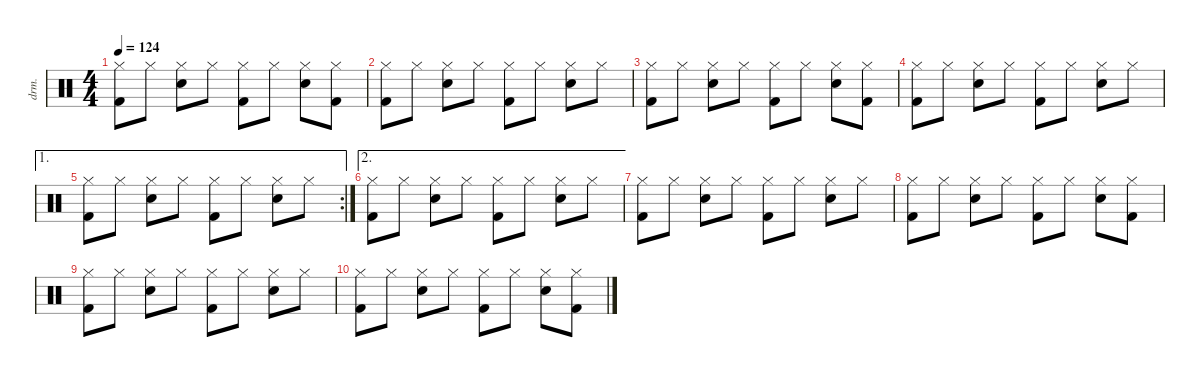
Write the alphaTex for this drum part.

\defaultSystemsLayout 4
\hideDynamics
\bracketExtendMode nobrackets
\otherSystemsTrackNameOrientation horizontal
\track ("Drums" "drm.") {instrument percussion}
\staff {score}
\articulation defaults
\ts (4 4)
\tempo 124
\clef neutral
\ks c
("Hi-Hat (closed)" "Kick (hit) 2").8{dy f} "Hi-Hat (closed)".8 ("Hi-Hat (closed)" "Snare (hit) 2").8 "Hi-Hat (closed)".8 ("Hi-Hat (closed)" "Kick (hit) 2").8 "Hi-Hat (closed)".8 ("Hi-Hat (closed)" "Snare (hit) 2").8 ("Hi-Hat (closed)" "Kick (hit) 2").8 |
("Hi-Hat (closed)" "Kick (hit) 2").8 "Hi-Hat (closed)".8 ("Hi-Hat (closed)" "Snare (hit) 2").8 "Hi-Hat (closed)".8 ("Hi-Hat (closed)" "Kick (hit) 2").8 "Hi-Hat (closed)".8 ("Hi-Hat (closed)" "Snare (hit) 2").8 "Hi-Hat (closed)".8 |
("Hi-Hat (closed)" "Kick (hit) 2").8 "Hi-Hat (closed)".8 ("Hi-Hat (closed)" "Snare (hit) 2").8 "Hi-Hat (closed)".8 ("Hi-Hat (closed)" "Kick (hit) 2").8 "Hi-Hat (closed)".8 ("Hi-Hat (closed)" "Snare (hit) 2").8 ("Hi-Hat (closed)" "Kick (hit) 2").8 |
("Hi-Hat (closed)" "Kick (hit) 2").8 "Hi-Hat (closed)".8 ("Hi-Hat (closed)" "Snare (hit) 2").8 "Hi-Hat (closed)".8 ("Hi-Hat (closed)" "Kick (hit) 2").8 "Hi-Hat (closed)".8 ("Hi-Hat (closed)" "Snare (hit) 2").8 "Hi-Hat (closed)".8 |
\ae 1
\rc 2
("Hi-Hat (closed)" "Kick (hit) 2").8 "Hi-Hat (closed)".8 ("Hi-Hat (closed)" "Snare (hit) 2").8 "Hi-Hat (closed)".8 ("Hi-Hat (closed)" "Kick (hit) 2").8 "Hi-Hat (closed)".8 ("Hi-Hat (closed)" "Snare (hit) 2").8 "Hi-Hat (closed)".8 |
\ae 2
("Hi-Hat (closed)" "Kick (hit) 2").8 "Hi-Hat (closed)".8 ("Hi-Hat (closed)" "Snare (hit) 2").8 "Hi-Hat (closed)".8 ("Hi-Hat (closed)" "Kick (hit) 2").8 "Hi-Hat (closed)".8 ("Hi-Hat (closed)" "Snare (hit) 2").8 "Hi-Hat (closed)".8 |
("Hi-Hat (closed)" "Kick (hit) 2").8 "Hi-Hat (closed)".8 ("Hi-Hat (closed)" "Snare (hit) 2").8 "Hi-Hat (closed)".8 ("Hi-Hat (closed)" "Kick (hit) 2").8 "Hi-Hat (closed)".8 ("Hi-Hat (closed)" "Snare (hit) 2").8 "Hi-Hat (closed)".8 |
("Hi-Hat (closed)" "Kick (hit) 2").8 "Hi-Hat (closed)".8 ("Hi-Hat (closed)" "Snare (hit) 2").8 "Hi-Hat (closed)".8 ("Hi-Hat (closed)" "Kick (hit) 2").8 "Hi-Hat (closed)".8 ("Hi-Hat (closed)" "Snare (hit) 2").8 ("Hi-Hat (closed)" "Kick (hit) 2").8 |
("Hi-Hat (closed)" "Kick (hit) 2").8 "Hi-Hat (closed)".8 ("Hi-Hat (closed)" "Snare (hit) 2").8 "Hi-Hat (closed)".8 ("Hi-Hat (closed)" "Kick (hit) 2").8 "Hi-Hat (closed)".8 ("Hi-Hat (closed)" "Snare (hit) 2").8 "Hi-Hat (closed)".8 |
("Hi-Hat (closed)" "Kick (hit) 2").8 "Hi-Hat (closed)".8 ("Hi-Hat (closed)" "Snare (hit) 2").8 "Hi-Hat (closed)".8 ("Hi-Hat (closed)" "Kick (hit) 2").8 "Hi-Hat (closed)".8 ("Hi-Hat (closed)" "Snare (hit) 2").8 ("Hi-Hat (closed)" "Kick (hit) 2").8
